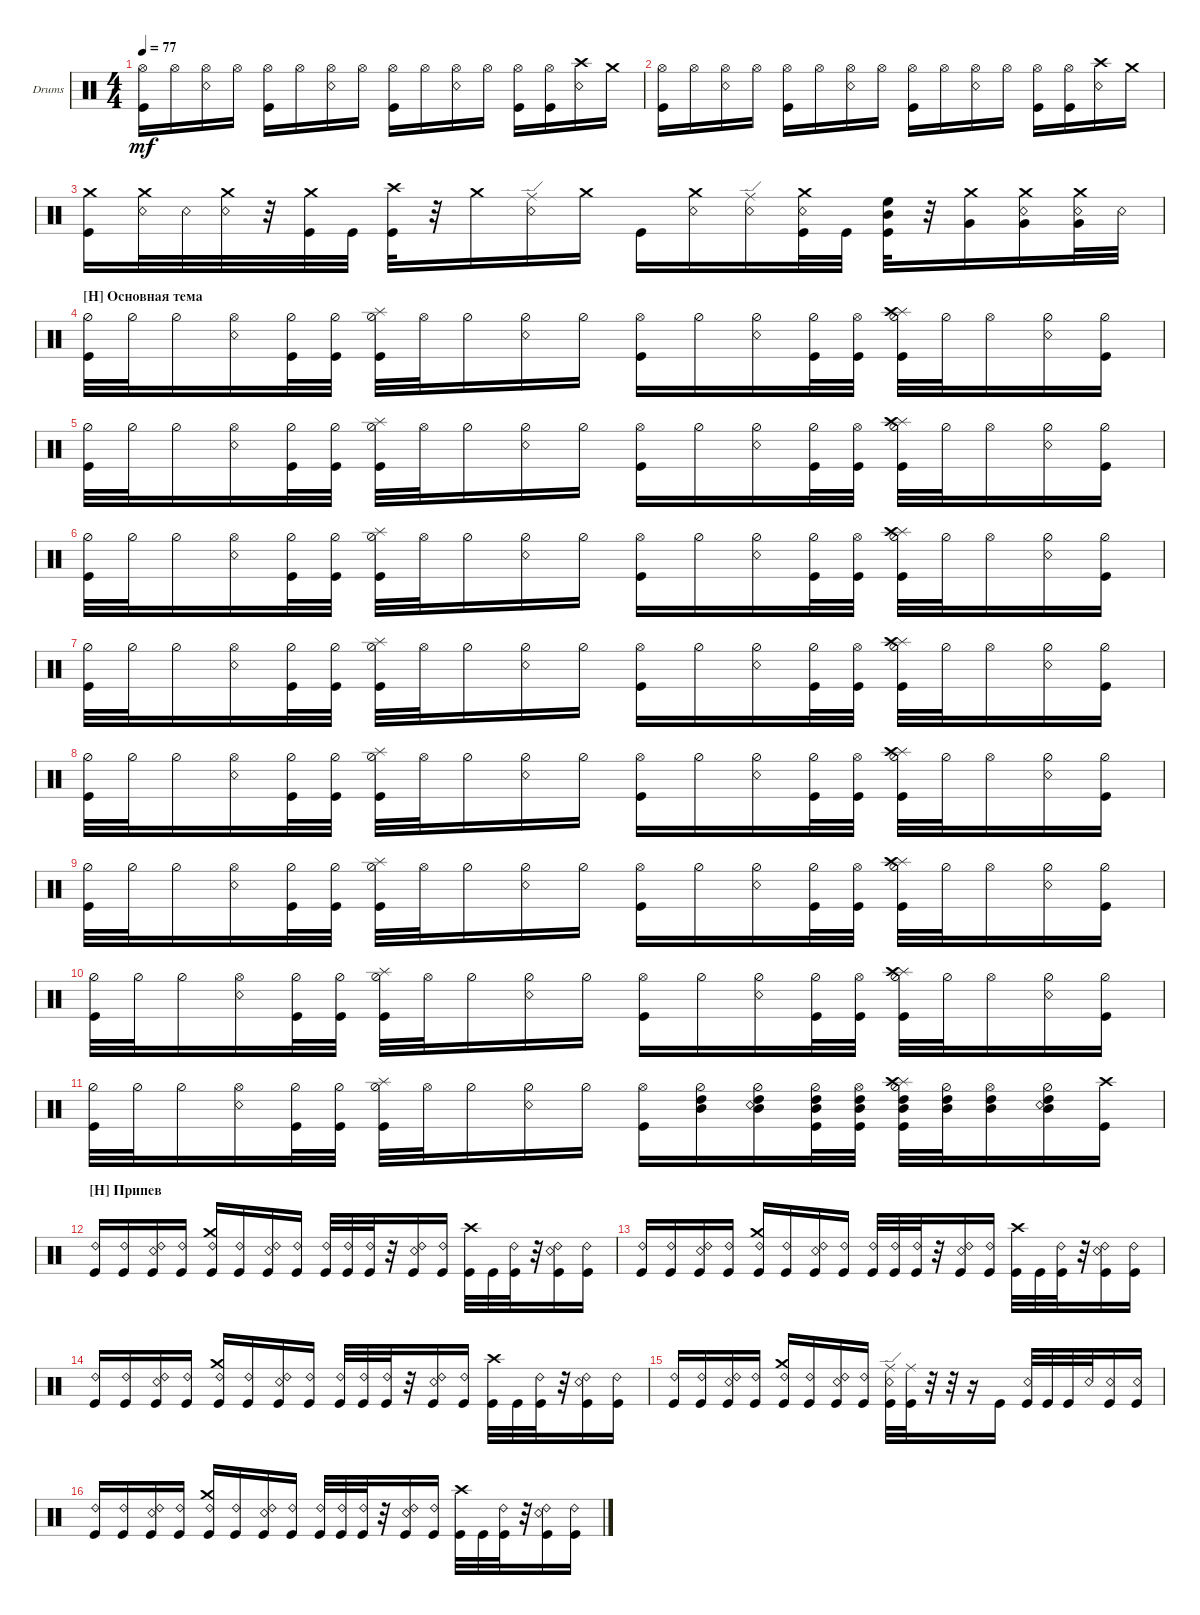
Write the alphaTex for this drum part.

\bracketExtendMode groupsimilarinstruments
\firstSystemTrackNameOrientation horizontal
\otherSystemsTrackNameOrientation horizontal
\track ("Drumkit" "Drums") {instrument percussion}
\staff {score}
\articulation defaults
\ts (4 4)
\tempo 77
\clef neutral
\ks c
("Kick (hit)" "Hi-Hat (open)").16{dy mf} "Hi-Hat (open)".16 ("Snare (rim shot)" "Hi-Hat (open)").16 "Hi-Hat (open)".16 ("Kick (hit)" "Hi-Hat (open)").16 "Hi-Hat (open)".16 ("Snare (rim shot)" "Hi-Hat (open)").16 "Hi-Hat (open)".16 ("Kick (hit)" "Hi-Hat (open)").16 "Hi-Hat (open)".16 ("Snare (rim shot)" "Hi-Hat (open)").16 "Hi-Hat (open)".16 ("Kick (hit)" "Hi-Hat (open)").16 ("Hi-Hat (open)" "Kick (hit)").16 ("Snare (rim shot)" "Crash high (hit)").16 "Crash medium (hit)".16 |
("Kick (hit)" "Hi-Hat (open)").16 "Hi-Hat (open)".16 ("Snare (rim shot)" "Hi-Hat (open)").16 "Hi-Hat (open)".16 ("Kick (hit)" "Hi-Hat (open)").16 "Hi-Hat (open)".16 ("Snare (rim shot)" "Hi-Hat (open)").16 "Hi-Hat (open)".16 ("Kick (hit)" "Hi-Hat (open)").16 "Hi-Hat (open)".16 ("Snare (rim shot)" "Hi-Hat (open)").16 "Hi-Hat (open)".16 ("Kick (hit)" "Hi-Hat (open)").16 ("Hi-Hat (open)" "Kick (hit)").16 ("Snare (rim shot)" "Crash high (hit)").16 "Crash medium (hit)".16 |
("Kick (hit)" "Crash medium (hit)").16 ("Crash medium (hit)" "Snare (rim shot)").32 "Snare (rim shot)".32 ("Crash medium (hit)" "Snare (rim shot)").32 r.32 ("Crash medium (hit)" "Kick (hit)").32 "Kick (hit)".32 ("Kick (hit)" "Crash high (hit)").32 r.32 "Crash medium (hit)".16 ("Ride (edge)" "Snare (rim shot)").16 "Crash medium (hit)".16 "Kick (hit)".16 ("Crash medium (hit)" "Snare (rim shot)").16 ("Ride (edge)" "Snare (rim shot)").16 ("Crash medium (hit)" "Kick (hit)" "Snare (rim shot)").32 "Kick (hit)".32 ("Kick (hit)" "High Floor Tom (hit)" "Mid Tom (hit)").32 r.32 ("Crash medium (hit)" "Very Low Tom (hit)").16 ("Crash medium (hit)" "Snare (rim shot)" "Very Low Tom (hit)").16 ("Crash medium (hit)" "Snare (rim shot)" "Very Low Tom (hit)").32 "Snare (rim shot)".32 |
\section ("H" "Основная тема")
("Kick (hit)" "Hi-Hat (half)").32 "Hi-Hat (half)".32 "Hi-Hat (half)".16 ("Snare (rim shot)" "Hi-Hat (open)").16 ("Kick (hit)" "Hi-Hat (half)").32 ("Kick (hit)" "Hi-Hat (half)").32 ("Kick (hit)" "Hi-Hat (half)" "Splash (hit)").32 "Hi-Hat (open)".32 "Hi-Hat (half)".16 ("Snare (rim shot)" "Hi-Hat (half)").16 "Hi-Hat (half)".16 ("Kick (hit)" "Hi-Hat (open)").16 "Hi-Hat (half)".16 ("Snare (rim shot)" "Hi-Hat (half)").16 ("Kick (hit)" "Hi-Hat (half)").32 ("Kick (hit)" "Hi-Hat (open)").32 ("Kick (hit)" "Hi-Hat (half)" "Splash (hit)" "Crash high (hit)").32 "Hi-Hat (half)".32 "Hi-Hat (open)".16 ("Snare (rim shot)" "Hi-Hat (half)").16 ("Kick (hit)" "Hi-Hat (half)").16 |
("Kick (hit)" "Hi-Hat (half)").32 "Hi-Hat (half)".32 "Hi-Hat (half)".16 ("Snare (rim shot)" "Hi-Hat (open)").16 ("Kick (hit)" "Hi-Hat (half)").32 ("Kick (hit)" "Hi-Hat (half)").32 ("Kick (hit)" "Hi-Hat (half)" "Splash (hit)").32 "Hi-Hat (open)".32 "Hi-Hat (half)".16 ("Snare (rim shot)" "Hi-Hat (half)").16 "Hi-Hat (half)".16 ("Kick (hit)" "Hi-Hat (open)").16 "Hi-Hat (half)".16 ("Snare (rim shot)" "Hi-Hat (half)").16 ("Kick (hit)" "Hi-Hat (half)").32 ("Kick (hit)" "Hi-Hat (open)").32 ("Kick (hit)" "Hi-Hat (half)" "Splash (hit)" "Crash high (hit)").32 "Hi-Hat (half)".32 "Hi-Hat (open)".16 ("Snare (rim shot)" "Hi-Hat (half)").16 ("Kick (hit)" "Hi-Hat (half)").16 |
("Kick (hit)" "Hi-Hat (half)").32 "Hi-Hat (half)".32 "Hi-Hat (half)".16 ("Snare (rim shot)" "Hi-Hat (open)").16 ("Kick (hit)" "Hi-Hat (half)").32 ("Kick (hit)" "Hi-Hat (half)").32 ("Kick (hit)" "Hi-Hat (half)" "Splash (hit)").32 "Hi-Hat (open)".32 "Hi-Hat (half)".16 ("Snare (rim shot)" "Hi-Hat (half)").16 "Hi-Hat (half)".16 ("Kick (hit)" "Hi-Hat (open)").16 "Hi-Hat (half)".16 ("Snare (rim shot)" "Hi-Hat (half)").16 ("Kick (hit)" "Hi-Hat (half)").32 ("Kick (hit)" "Hi-Hat (open)").32 ("Kick (hit)" "Hi-Hat (half)" "Splash (hit)" "Crash high (hit)").32 "Hi-Hat (half)".32 "Hi-Hat (open)".16 ("Snare (rim shot)" "Hi-Hat (half)").16 ("Kick (hit)" "Hi-Hat (half)").16 |
("Kick (hit)" "Hi-Hat (half)").32 "Hi-Hat (half)".32 "Hi-Hat (half)".16 ("Snare (rim shot)" "Hi-Hat (open)").16 ("Kick (hit)" "Hi-Hat (half)").32 ("Kick (hit)" "Hi-Hat (half)").32 ("Kick (hit)" "Hi-Hat (half)" "Splash (hit)").32 "Hi-Hat (open)".32 "Hi-Hat (half)".16 ("Snare (rim shot)" "Hi-Hat (half)").16 "Hi-Hat (half)".16 ("Kick (hit)" "Hi-Hat (open)").16 "Hi-Hat (half)".16 ("Snare (rim shot)" "Hi-Hat (half)").16 ("Kick (hit)" "Hi-Hat (half)").32 ("Kick (hit)" "Hi-Hat (open)").32 ("Kick (hit)" "Hi-Hat (half)" "Splash (hit)" "Crash high (hit)").32 "Hi-Hat (half)".32 "Hi-Hat (open)".16 ("Snare (rim shot)" "Hi-Hat (half)").16 ("Kick (hit)" "Hi-Hat (half)").16 |
("Kick (hit)" "Hi-Hat (half)").32 "Hi-Hat (half)".32 "Hi-Hat (half)".16 ("Snare (rim shot)" "Hi-Hat (open)").16 ("Kick (hit)" "Hi-Hat (half)").32 ("Kick (hit)" "Hi-Hat (half)").32 ("Kick (hit)" "Hi-Hat (half)" "Splash (hit)").32 "Hi-Hat (open)".32 "Hi-Hat (half)".16 ("Snare (rim shot)" "Hi-Hat (half)").16 "Hi-Hat (half)".16 ("Kick (hit)" "Hi-Hat (open)").16 "Hi-Hat (half)".16 ("Snare (rim shot)" "Hi-Hat (half)").16 ("Kick (hit)" "Hi-Hat (half)").32 ("Kick (hit)" "Hi-Hat (open)").32 ("Kick (hit)" "Hi-Hat (half)" "Splash (hit)" "Crash high (hit)").32 "Hi-Hat (half)".32 "Hi-Hat (open)".16 ("Snare (rim shot)" "Hi-Hat (half)").16 ("Kick (hit)" "Hi-Hat (half)").16 |
("Kick (hit)" "Hi-Hat (half)").32 "Hi-Hat (half)".32 "Hi-Hat (half)".16 ("Snare (rim shot)" "Hi-Hat (open)").16 ("Kick (hit)" "Hi-Hat (half)").32 ("Kick (hit)" "Hi-Hat (half)").32 ("Kick (hit)" "Hi-Hat (half)" "Splash (hit)").32 "Hi-Hat (open)".32 "Hi-Hat (half)".16 ("Snare (rim shot)" "Hi-Hat (half)").16 "Hi-Hat (half)".16 ("Kick (hit)" "Hi-Hat (open)").16 "Hi-Hat (half)".16 ("Snare (rim shot)" "Hi-Hat (half)").16 ("Kick (hit)" "Hi-Hat (half)").32 ("Kick (hit)" "Hi-Hat (open)").32 ("Kick (hit)" "Hi-Hat (half)" "Splash (hit)" "Crash high (hit)").32 "Hi-Hat (half)".32 "Hi-Hat (open)".16 ("Snare (rim shot)" "Hi-Hat (half)").16 ("Kick (hit)" "Hi-Hat (half)").16 |
("Kick (hit)" "Hi-Hat (half)").32 "Hi-Hat (half)".32 "Hi-Hat (half)".16 ("Snare (rim shot)" "Hi-Hat (open)").16 ("Kick (hit)" "Hi-Hat (half)").32 ("Kick (hit)" "Hi-Hat (half)").32 ("Kick (hit)" "Hi-Hat (half)" "Splash (hit)").32 "Hi-Hat (open)".32 "Hi-Hat (half)".16 ("Snare (rim shot)" "Hi-Hat (half)").16 "Hi-Hat (half)".16 ("Kick (hit)" "Hi-Hat (open)").16 "Hi-Hat (half)".16 ("Snare (rim shot)" "Hi-Hat (half)").16 ("Kick (hit)" "Hi-Hat (half)").32 ("Kick (hit)" "Hi-Hat (open)").32 ("Kick (hit)" "Hi-Hat (half)" "Splash (hit)" "Crash high (hit)").32 "Hi-Hat (half)".32 "Hi-Hat (open)".16 ("Snare (rim shot)" "Hi-Hat (half)").16 ("Kick (hit)" "Hi-Hat (half)").16 |
("Kick (hit)" "Hi-Hat (half)").32 "Hi-Hat (half)".32 "Hi-Hat (half)".16 ("Snare (rim shot)" "Hi-Hat (open)").16 ("Kick (hit)" "Hi-Hat (half)").32 ("Kick (hit)" "Hi-Hat (half)").32 ("Kick (hit)" "Hi-Hat (half)" "Splash (hit)").32 "Hi-Hat (open)".32 "Hi-Hat (half)".16 ("Snare (rim shot)" "Hi-Hat (half)").16 "Hi-Hat (half)".16 ("Kick (hit)" "Hi-Hat (open)").16 ("Hi-Hat (half)" "Mid Tom (hit)" "High Tom (hit)").16 ("Snare (rim shot)" "Hi-Hat (half)" "Mid Tom (hit)" "High Tom (hit)").16 ("Kick (hit)" "Hi-Hat (half)" "Mid Tom (hit)" "High Tom (hit)").32 ("Kick (hit)" "Hi-Hat (open)" "Mid Tom (hit)" "High Tom (hit)").32 ("Kick (hit)" "Hi-Hat (half)" "Splash (hit)" "Crash high (hit)" "Mid Tom (hit)" "High Tom (hit)").32 ("Hi-Hat (half)" "Mid Tom (hit)" "High Tom (hit)").32 ("Hi-Hat (open)" "Mid Tom (hit)" "High Tom (hit)").16 ("Snare (rim shot)" "Hi-Hat (half)" "Mid Tom (hit)" "High Tom (hit)").16 ("Kick (hit)" "Crash high (hit)").16 |
\section ("H" "Припев")
("Kick (hit)" "Ride (bell) 2").16 ("Kick (hit)" "Ride (bell) 2").16 ("Snare (rim shot)" "Kick (hit)" "Ride (bell) 2").16 ("Kick (hit)" "Ride (bell) 2").16 ("Kick (hit)" "Ride (bell) 2" "Crash medium (hit)").16 ("Kick (hit)" "Ride (bell) 2").16 ("Snare (rim shot)" "Kick (hit)" "Ride (bell) 2").16 ("Kick (hit)" "Ride (bell) 2").16 ("Kick (hit)" "Ride (bell) 2").32 ("Kick (hit)" "Ride (bell) 2").32 ("Kick (hit)" "Ride (bell) 2").32 r.32 ("Snare (rim shot)" "Kick (hit)" "Ride (bell) 2").16 ("Kick (hit)" "Ride (bell) 2").16 ("Kick (hit)" "Crash high (hit)").32 "Kick (hit)".32 ("Kick (hit)" "Ride (bell) 2").32 r.32 ("Snare (rim shot)" "Kick (hit)" "Ride (bell) 2").16 ("Kick (hit)" "Ride (bell) 2").16 |
("Kick (hit)" "Ride (bell) 2").16 ("Kick (hit)" "Ride (bell) 2").16 ("Snare (rim shot)" "Kick (hit)" "Ride (bell) 2").16 ("Kick (hit)" "Ride (bell) 2").16 ("Kick (hit)" "Ride (bell) 2" "Crash medium (hit)").16 ("Kick (hit)" "Ride (bell) 2").16 ("Snare (rim shot)" "Kick (hit)" "Ride (bell) 2").16 ("Kick (hit)" "Ride (bell) 2").16 ("Kick (hit)" "Ride (bell) 2").32 ("Kick (hit)" "Ride (bell) 2").32 ("Kick (hit)" "Ride (bell) 2").32 r.32 ("Snare (rim shot)" "Kick (hit)" "Ride (bell) 2").16 ("Kick (hit)" "Ride (bell) 2").16 ("Kick (hit)" "Crash high (hit)").32 "Kick (hit)".32 ("Kick (hit)" "Ride (bell) 2").32 r.32 ("Snare (rim shot)" "Kick (hit)" "Ride (bell) 2").16 ("Kick (hit)" "Ride (bell) 2").16 |
("Kick (hit)" "Ride (bell) 2").16 ("Kick (hit)" "Ride (bell) 2").16 ("Snare (rim shot)" "Kick (hit)" "Ride (bell) 2").16 ("Kick (hit)" "Ride (bell) 2").16 ("Kick (hit)" "Ride (bell) 2" "Crash medium (hit)").16 ("Kick (hit)" "Ride (bell) 2").16 ("Snare (rim shot)" "Kick (hit)" "Ride (bell) 2").16 ("Kick (hit)" "Ride (bell) 2").16 ("Kick (hit)" "Ride (bell) 2").32 ("Kick (hit)" "Ride (bell) 2").32 ("Kick (hit)" "Ride (bell) 2").32 r.32 ("Snare (rim shot)" "Kick (hit)" "Ride (bell) 2").16 ("Kick (hit)" "Ride (bell) 2").16 ("Kick (hit)" "Crash high (hit)").32 "Kick (hit)".32 ("Kick (hit)" "Ride (bell) 2").32 r.32 ("Snare (rim shot)" "Kick (hit)" "Ride (bell) 2").16 ("Kick (hit)" "Ride (bell) 2").16 |
("Kick (hit)" "Ride (bell) 2").16 ("Kick (hit)" "Ride (bell) 2").16 ("Snare (rim shot)" "Kick (hit)" "Ride (bell) 2").16 ("Kick (hit)" "Ride (bell) 2").16 ("Kick (hit)" "Ride (bell) 2" "Crash medium (hit)").16 ("Kick (hit)" "Ride (bell) 2").16 ("Snare (rim shot)" "Kick (hit)" "Ride (bell) 2").16 ("Kick (hit)" "Ride (bell) 2").16 ("Kick (hit)" "Ride (edge)" "Snare (rim shot)").32 ("Kick (hit)" "Ride (middle)").32 r.32 r.32 r.16 "Kick (hit)".16 ("Kick (hit)" "Snare (rim shot)").32 "Kick (hit)".32 "Kick (hit)".32 "Snare (rim shot)".32 ("Snare (rim shot)" "Kick (hit)").16 ("Kick (hit)" "Snare (rim shot)").16 |
("Kick (hit)" "Ride (bell) 2").16 ("Kick (hit)" "Ride (bell) 2").16 ("Snare (rim shot)" "Kick (hit)" "Ride (bell) 2").16 ("Kick (hit)" "Ride (bell) 2").16 ("Kick (hit)" "Ride (bell) 2" "Crash medium (hit)").16 ("Kick (hit)" "Ride (bell) 2").16 ("Snare (rim shot)" "Kick (hit)" "Ride (bell) 2").16 ("Kick (hit)" "Ride (bell) 2").16 ("Kick (hit)" "Ride (bell) 2").32 ("Kick (hit)" "Ride (bell) 2").32 ("Kick (hit)" "Ride (bell) 2").32 r.32 ("Snare (rim shot)" "Kick (hit)" "Ride (bell) 2").16 ("Kick (hit)" "Ride (bell) 2").16 ("Kick (hit)" "Crash high (hit)").32 "Kick (hit)".32 ("Kick (hit)" "Ride (bell) 2").32 r.32 ("Snare (rim shot)" "Kick (hit)" "Ride (bell) 2").16 ("Kick (hit)" "Ride (bell) 2").16
